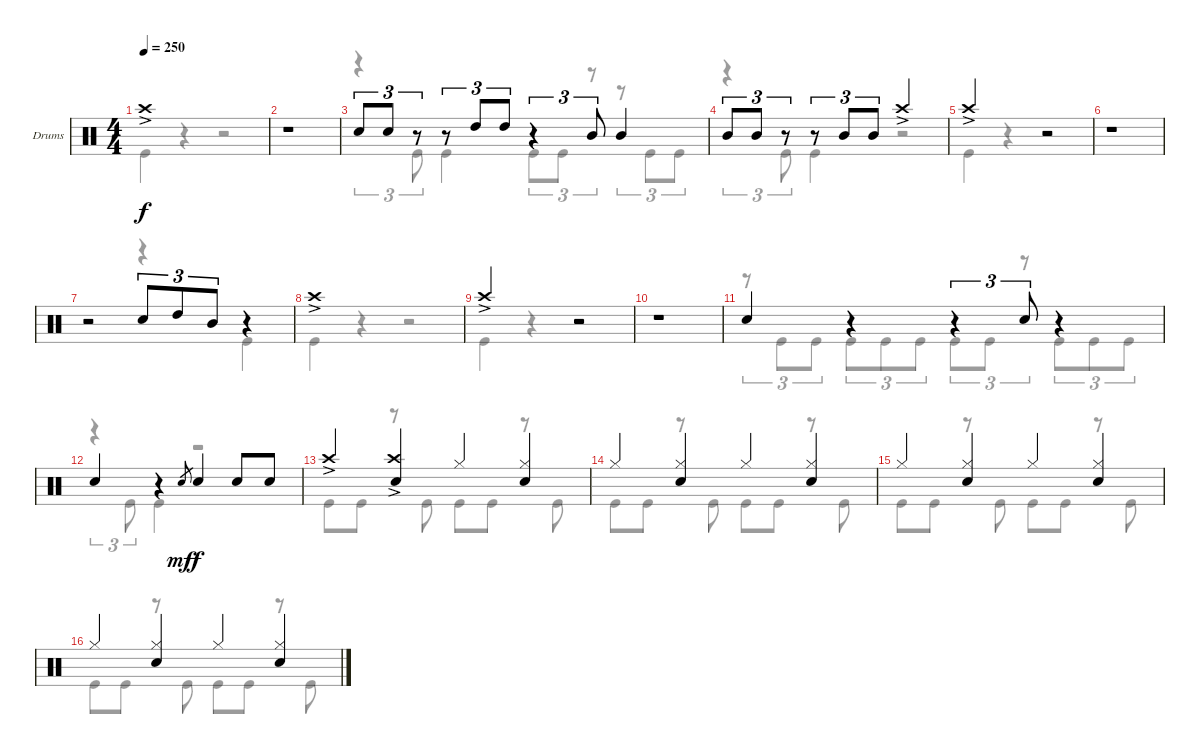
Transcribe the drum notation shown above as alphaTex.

\bracketExtendMode groupsimilarinstruments
\firstSystemTrackNameOrientation horizontal
\otherSystemsTrackNameOrientation horizontal
\track ("Drumkit" "Drums") {instrument percussion}
\staff {score}
\articulation defaults
\voice
\ts (4 4)
\tempo 250
\clef neutral
\ks c "Crash high (hit)"{ac}.1{dy f}
|
r.1 |
"Snare (hit) 2".8{tu (3 2)} "Snare (hit) 2".8{tu (3 2)} r.8{tu (3 2)} r.8{tu (3 2)} "High Tom (hit)".8{tu (3 2)} "High Tom (hit)".8{tu (3 2)} r.4{tu (3 2)} "Mid Tom (hit)".8{tu (3 2)} "Mid Tom (hit)".4 |
"Mid Tom (hit)".8{tu (3 2)} "Mid Tom (hit)".8{tu (3 2)} r.8{tu (3 2)} r.8{tu (3 2)} "Mid Tom (hit)".8{tu (3 2)} "Mid Tom (hit)".8{tu (3 2)} "Crash high (hit)"{ac}.2 |
"Crash high (hit)"{ac}.2 r.2 |
r.1 |
r.2 "Snare (hit) 2".8{tu (3 2)} "High Tom (hit)".8{tu (3 2)} "Mid Tom (hit)".8{tu (3 2)} r.4 |
"Crash high (hit)"{ac}.1 |
"Crash high (hit)"{ac}.2 r.2 |
r.1 |
"Snare (hit) 2".4 r.4 r.4{tu (3 2)} "Snare (hit) 2".8{tu (3 2)} r.4 |
"Snare (hit) 2".4 r.4 "Snare (hit) 2".8{gr dy mf} "Snare (hit) 2".4{dy f} "Snare (hit) 2".8 "Snare (hit) 2".8 |
"Crash high (hit)"{ac}.4 ("Crash high (hit)"{ac} "Snare (hit) 2").4 "Hi-Hat (closed)".4 ("Hi-Hat (closed)" "Snare (hit) 2").4 |
"Hi-Hat (closed)".4 ("Hi-Hat (closed)" "Snare (hit) 2").4 "Hi-Hat (closed)".4 ("Hi-Hat (closed)" "Snare (hit) 2").4 |
"Hi-Hat (closed)".4 ("Hi-Hat (closed)" "Snare (hit) 2").4 "Hi-Hat (closed)".4 ("Hi-Hat (closed)" "Snare (hit) 2").4 |
"Hi-Hat (closed)".4 ("Hi-Hat (closed)" "Snare (hit) 2").4 "Hi-Hat (closed)".4 ("Hi-Hat (closed)" "Snare (hit) 2").4
\voice
\clef neutral
\ottava regular
\simile none
\ks c "Kick (hit)".4{dy f}
r.4 r.2 |
r.1 |
r.4{tu (3 2)} "Kick (hit)".8{tu (3 2)} "Kick (hit)".4 "Kick (hit)".8{tu (3 2)} "Kick (hit)".8{tu (3 2)} r.8{tu (3 2)} r.8{tu (3 2)} "Kick (hit)".8{tu (3 2)} "Kick (hit)".8{tu (3 2)} |
r.4{tu (3 2)} "Kick (hit)".8{tu (3 2)} "Kick (hit)".4 r.2 |
"Kick (hit)".4 r.4 r.2 |
r.1 |
r.2 r.4 "Kick (hit)".4 |
"Kick (hit)".4 r.4 r.2 |
"Kick (hit)".4 r.4 r.2 |
r.1 |
r.8{tu (3 2)} "Kick (hit)".8{tu (3 2)} "Kick (hit)".8{tu (3 2)} "Kick (hit)".8{tu (3 2)} "Kick (hit)".8{tu (3 2)} "Kick (hit)".8{tu (3 2)} "Kick (hit)".8{tu (3 2)} "Kick (hit)".8{tu (3 2)} r.8{tu (3 2)} "Kick (hit)".8{tu (3 2)} "Kick (hit)".8{tu (3 2)} "Kick (hit)".8{tu (3 2)} |
r.4{tu (3 2)} "Kick (hit)".8{tu (3 2)} "Kick (hit)".4 r.2 |
"Kick (hit)".8 "Kick (hit)".8 r.8 "Kick (hit)".8 "Kick (hit)".8 "Kick (hit)".8 r.8 "Kick (hit)".8 |
"Kick (hit)".8 "Kick (hit)".8 r.8 "Kick (hit)".8 "Kick (hit)".8 "Kick (hit)".8 r.8 "Kick (hit)".8 |
"Kick (hit)".8 "Kick (hit)".8 r.8 "Kick (hit)".8 "Kick (hit)".8 "Kick (hit)".8 r.8 "Kick (hit)".8 |
"Kick (hit)".8 "Kick (hit)".8 r.8 "Kick (hit)".8 "Kick (hit)".8 "Kick (hit)".8 r.8 "Kick (hit)".8
